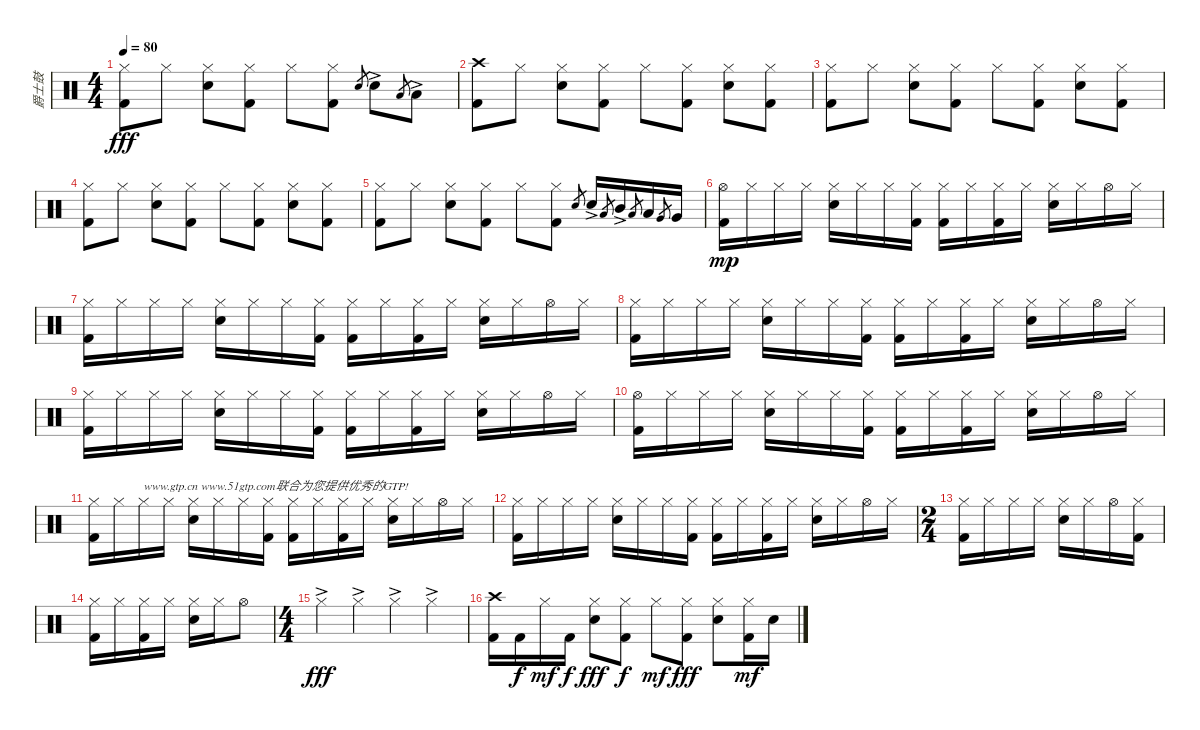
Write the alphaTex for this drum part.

\track ("爵士鼓" "爵士鼓") {instrument percussion}
\staff {score}
\articulation defaults
\ts (4 4)
\tempo 80
\clef neutral
\ks c
("Hi-Hat (closed)" "Kick (hit) 2").8{dy fff} "Hi-Hat (closed)".8 ("Hi-Hat (closed)" "Electric Snare (hit)").8 ("Hi-Hat (closed)" "Kick (hit) 2").8 "Hi-Hat (closed)".8 ("Hi-Hat (closed)" "Kick (hit) 2").8 "Electric Snare (hit)".8{gr} "Electric Snare (hit)"{ac}.8 "Low Tom (hit)".8{gr} "Low Tom (hit)"{ac}.8 |
("Crash high (hit)" "Kick (hit) 2").8 "Hi-Hat (closed)".8 ("Hi-Hat (closed)" "Electric Snare (hit)").8 ("Hi-Hat (closed)" "Kick (hit) 2").8 "Hi-Hat (closed)".8 ("Hi-Hat (closed)" "Kick (hit) 2").8 ("Hi-Hat (closed)" "Electric Snare (hit)").8 ("Hi-Hat (closed)" "Kick (hit) 2").8 |
("Hi-Hat (closed)" "Kick (hit) 2").8 "Hi-Hat (closed)".8 ("Hi-Hat (closed)" "Electric Snare (hit)").8 ("Hi-Hat (closed)" "Kick (hit) 2").8 "Hi-Hat (closed)".8 ("Hi-Hat (closed)" "Kick (hit) 2").8 ("Hi-Hat (closed)" "Electric Snare (hit)").8 ("Hi-Hat (closed)" "Kick (hit) 2").8 |
("Hi-Hat (closed)" "Kick (hit) 2").8 "Hi-Hat (closed)".8 ("Hi-Hat (closed)" "Electric Snare (hit)").8 ("Hi-Hat (closed)" "Kick (hit) 2").8 "Hi-Hat (closed)".8 ("Hi-Hat (closed)" "Kick (hit) 2").8 ("Hi-Hat (closed)" "Electric Snare (hit)").8 ("Hi-Hat (closed)" "Kick (hit) 2").8 |
("Hi-Hat (closed)" "Kick (hit) 2").8 "Hi-Hat (closed)".8 ("Hi-Hat (closed)" "Electric Snare (hit)").8 ("Hi-Hat (closed)" "Kick (hit) 2").8 "Hi-Hat (closed)".8 ("Hi-Hat (closed)" "Kick (hit) 2").8 "Electric Snare (hit)".8{gr} "Electric Snare (hit)"{ac}.16 "Low Tom (hit)".8{gr} "Mid Tom (hit)"{ac}.16 "Low Tom (hit)".8{gr} "Low Tom (hit)".16 "Very Low Tom (hit)".8{gr} "Very Low Tom (hit)".16 |
("Hi-Hat (open)" "Kick (hit) 2").16{dy mp} "Hi-Hat (closed)".16 "Hi-Hat (closed)".16 "Hi-Hat (closed)".16 ("Hi-Hat (closed)" "Electric Snare (hit)").16 "Hi-Hat (closed)".16 "Hi-Hat (closed)".16 ("Hi-Hat (closed)" "Kick (hit) 2").16 ("Hi-Hat (closed)" "Kick (hit) 2").16 "Hi-Hat (closed)".16 ("Hi-Hat (closed)" "Kick (hit) 2").16 "Hi-Hat (closed)".16 ("Hi-Hat (closed)" "Electric Snare (hit)").16 "Hi-Hat (closed)".16 "Hi-Hat (open)".16 "Hi-Hat (closed)".16 |
("Hi-Hat (closed)" "Kick (hit) 2").16 "Hi-Hat (closed)".16 "Hi-Hat (closed)".16 "Hi-Hat (closed)".16 ("Hi-Hat (closed)" "Electric Snare (hit)").16 "Hi-Hat (closed)".16 "Hi-Hat (closed)".16 ("Hi-Hat (closed)" "Kick (hit) 2").16 ("Hi-Hat (closed)" "Kick (hit) 2").16 "Hi-Hat (closed)".16 ("Hi-Hat (closed)" "Kick (hit) 2").16 "Hi-Hat (closed)".16 ("Hi-Hat (closed)" "Electric Snare (hit)").16 "Hi-Hat (closed)".16 "Hi-Hat (open)".16 "Hi-Hat (closed)".16 |
("Hi-Hat (closed)" "Kick (hit) 2").16 "Hi-Hat (closed)".16 "Hi-Hat (closed)".16 "Hi-Hat (closed)".16 ("Hi-Hat (closed)" "Electric Snare (hit)").16 "Hi-Hat (closed)".16 "Hi-Hat (closed)".16 ("Hi-Hat (closed)" "Kick (hit) 2").16 ("Hi-Hat (closed)" "Kick (hit) 2").16 "Hi-Hat (closed)".16 ("Hi-Hat (closed)" "Kick (hit) 2").16 "Hi-Hat (closed)".16 ("Hi-Hat (closed)" "Electric Snare (hit)").16 "Hi-Hat (closed)".16 "Hi-Hat (open)".16 "Hi-Hat (closed)".16 |
("Hi-Hat (closed)" "Kick (hit) 2").16 "Hi-Hat (closed)".16 "Hi-Hat (closed)".16 "Hi-Hat (closed)".16 ("Hi-Hat (closed)" "Electric Snare (hit)").16 "Hi-Hat (closed)".16 "Hi-Hat (closed)".16 ("Hi-Hat (closed)" "Kick (hit) 2").16 ("Hi-Hat (closed)" "Kick (hit) 2").16 "Hi-Hat (closed)".16 ("Hi-Hat (closed)" "Kick (hit) 2").16 "Hi-Hat (closed)".16 ("Hi-Hat (closed)" "Electric Snare (hit)").16 "Hi-Hat (closed)".16 "Hi-Hat (open)".16 "Hi-Hat (closed)".16 |
("Hi-Hat (open)" "Kick (hit) 2").16 "Hi-Hat (closed)".16 "Hi-Hat (closed)".16 "Hi-Hat (closed)".16 ("Hi-Hat (closed)" "Electric Snare (hit)").16 "Hi-Hat (closed)".16 "Hi-Hat (closed)".16 ("Hi-Hat (closed)" "Kick (hit) 2").16 ("Hi-Hat (closed)" "Kick (hit) 2").16 "Hi-Hat (closed)".16 ("Hi-Hat (closed)" "Kick (hit) 2").16 "Hi-Hat (closed)".16 ("Hi-Hat (closed)" "Electric Snare (hit)").16 "Hi-Hat (closed)".16 "Hi-Hat (open)".16 "Hi-Hat (closed)".16 |
("Hi-Hat (closed)" "Kick (hit) 2").16 "Hi-Hat (closed)".16 "Hi-Hat (closed)".16{txt "www.gtp.cn www.51gtp.com联合为您提供优秀的GTP!"} "Hi-Hat (closed)".16 ("Hi-Hat (closed)" "Electric Snare (hit)").16 "Hi-Hat (closed)".16 "Hi-Hat (closed)".16 ("Hi-Hat (closed)" "Kick (hit) 2").16 ("Hi-Hat (closed)" "Kick (hit) 2").16 "Hi-Hat (closed)".16 ("Hi-Hat (closed)" "Kick (hit) 2").16 "Hi-Hat (closed)".16 ("Hi-Hat (closed)" "Electric Snare (hit)").16 "Hi-Hat (closed)".16 "Hi-Hat (open)".16 "Hi-Hat (closed)".16 |
("Hi-Hat (closed)" "Kick (hit) 2").16 "Hi-Hat (closed)".16 "Hi-Hat (closed)".16 "Hi-Hat (closed)".16 ("Hi-Hat (closed)" "Electric Snare (hit)").16 "Hi-Hat (closed)".16 "Hi-Hat (closed)".16 ("Hi-Hat (closed)" "Kick (hit) 2").16 ("Hi-Hat (closed)" "Kick (hit) 2").16 "Hi-Hat (closed)".16 ("Hi-Hat (closed)" "Kick (hit) 2").16 "Hi-Hat (closed)".16 ("Hi-Hat (closed)" "Electric Snare (hit)").16 "Hi-Hat (closed)".16 "Hi-Hat (open)".16 "Hi-Hat (closed)".16 |
\ts (2 4)
("Hi-Hat (closed)" "Kick (hit) 2").16 "Hi-Hat (closed)".16 "Hi-Hat (closed)".16 "Hi-Hat (closed)".16 ("Hi-Hat (closed)" "Electric Snare (hit)").16 "Hi-Hat (closed)".16 "Hi-Hat (open)".16 ("Hi-Hat (closed)" "Kick (hit) 2").16 |
("Hi-Hat (closed)" "Kick (hit) 2").16 "Hi-Hat (closed)".16 ("Hi-Hat (closed)" "Kick (hit) 2").16 "Hi-Hat (closed)".16 ("Hi-Hat (closed)" "Electric Snare (hit)").16 "Hi-Hat (closed)".16 "Hi-Hat (open)".8 |
\ts (4 4)
"Hi-Hat (closed)"{ac}.4{dy fff} "Hi-Hat (closed)"{ac}.4 "Hi-Hat (closed)"{ac}.4 "Hi-Hat (closed)"{ac}.4 |
("Crash high (hit)" "Kick (hit) 2").16 "Kick (hit) 2".16{dy f} "Hi-Hat (closed)".16{dy mf} "Kick (hit) 2".16{dy f} ("Hi-Hat (closed)" "Electric Snare (hit)").8{dy fff} ("Hi-Hat (closed)" "Kick (hit) 2").8{dy f} "Hi-Hat (closed)".8{dy mf} ("Hi-Hat (closed)" "Kick (hit) 2").8{dy fff} ("Hi-Hat (closed)" "Electric Snare (hit)").8 ("Hi-Hat (closed)" "Kick (hit) 2").16{dy mf} "Electric Snare (hit)".16
